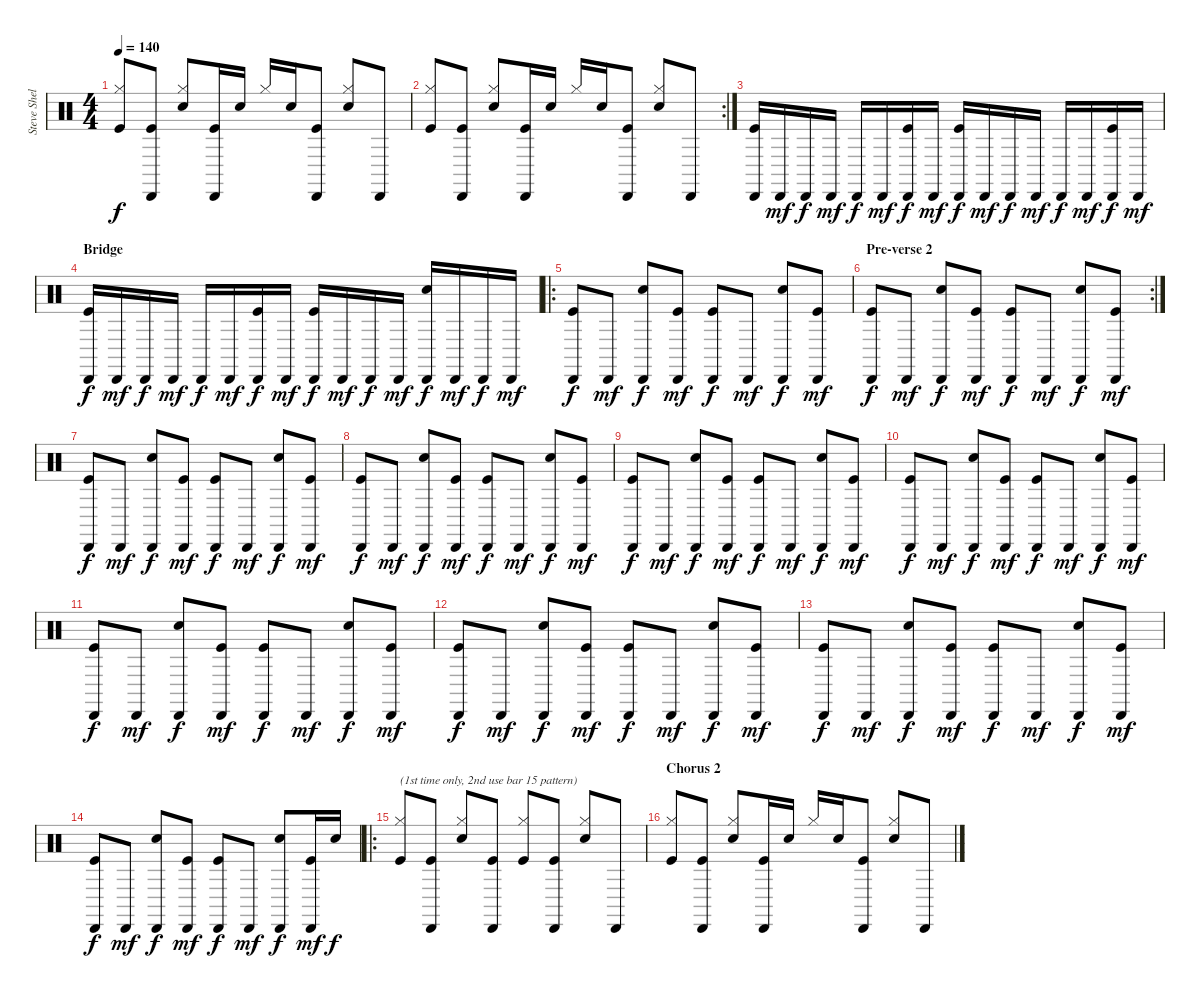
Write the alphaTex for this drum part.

\track ("Steve Shelley" "Steve Shel") {instrument percussion}
\staff {score}
\articulation defaults
\ts (4 4)
\tempo 140
\clef neutral
\ks c
("Hi-Hat (closed)" "Kick (hit)").8{dy f} ("Cabasa (hit)" "Kick (hit)").8 ("Hi-Hat (closed)" "Electric Snare (hit)").8 ("Cabasa (hit)" "Kick (hit)").16 "Electric Snare (hit)".16 "Hi-Hat (closed)".16 "Electric Snare (hit)".16 ("Cabasa (hit)" "Kick (hit)").8 ("Hi-Hat (closed)" "Electric Snare (hit)").8 "Cabasa (hit)".8 |
\rc 2
("Hi-Hat (closed)" "Kick (hit)").8 ("Cabasa (hit)" "Kick (hit)").8 ("Hi-Hat (closed)" "Electric Snare (hit)").8 ("Cabasa (hit)" "Kick (hit)").16 "Electric Snare (hit)".16 "Hi-Hat (closed)".16 "Electric Snare (hit)".16 ("Cabasa (hit)" "Kick (hit)").8 ("Hi-Hat (closed)" "Electric Snare (hit)").8 "Cabasa (hit)".8 |
("Cabasa (hit)" "Kick (hit)").16 "Cabasa (hit)".16{dy mf} "Cabasa (hit)".16{dy f} "Cabasa (hit)".16{dy mf} "Cabasa (hit)".16{dy f} "Cabasa (hit)".16{dy mf} ("Cabasa (hit)" "Kick (hit)").16{dy f} "Cabasa (hit)".16{dy mf} ("Cabasa (hit)" "Kick (hit)").16{dy f} "Cabasa (hit)".16{dy mf} "Cabasa (hit)".16{dy f} "Cabasa (hit)".16{dy mf} "Cabasa (hit)".16{dy f} "Cabasa (hit)".16{dy mf} ("Cabasa (hit)" "Kick (hit)").16{dy f} "Cabasa (hit)".16{dy mf} |
\section ("" "Bridge")
("Cabasa (hit)" "Kick (hit)").16{dy f} "Cabasa (hit)".16{dy mf} "Cabasa (hit)".16{dy f} "Cabasa (hit)".16{dy mf} "Cabasa (hit)".16{dy f} "Cabasa (hit)".16{dy mf} ("Cabasa (hit)" "Kick (hit)").16{dy f} "Cabasa (hit)".16{dy mf} ("Cabasa (hit)" "Kick (hit)").16{dy f} "Cabasa (hit)".16{dy mf} "Cabasa (hit)".16{dy f} "Cabasa (hit)".16{dy mf} ("Cabasa (hit)" "Electric Snare (hit)").16{dy f} "Cabasa (hit)".16{dy mf} "Cabasa (hit)".16{dy f} "Cabasa (hit)".16{dy mf} |
\ro
("Cabasa (hit)" "Kick (hit)").8{dy f} "Cabasa (hit)".8{dy mf} ("Cabasa (hit)" "Electric Snare (hit)").8{dy f} ("Cabasa (hit)" "Kick (hit)").8{dy mf} ("Cabasa (hit)" "Kick (hit)").8{dy f} "Cabasa (hit)".8{dy mf} ("Cabasa (hit)" "Electric Snare (hit)").8{dy f} ("Cabasa (hit)" "Kick (hit)").8{dy mf} |
\rc 2
\section ("" "Pre-verse 2")
("Cabasa (hit)" "Kick (hit)").8{dy f} "Cabasa (hit)".8{dy mf} ("Cabasa (hit)" "Electric Snare (hit)").8{dy f} ("Cabasa (hit)" "Kick (hit)").8{dy mf} ("Cabasa (hit)" "Kick (hit)").8{dy f} "Cabasa (hit)".8{dy mf} ("Cabasa (hit)" "Electric Snare (hit)").8{dy f} ("Cabasa (hit)" "Kick (hit)").8{dy mf} |
("Cabasa (hit)" "Kick (hit)").8{dy f} "Cabasa (hit)".8{dy mf} ("Cabasa (hit)" "Electric Snare (hit)").8{dy f} ("Cabasa (hit)" "Kick (hit)").8{dy mf} ("Cabasa (hit)" "Kick (hit)").8{dy f} "Cabasa (hit)".8{dy mf} ("Cabasa (hit)" "Electric Snare (hit)").8{dy f} ("Cabasa (hit)" "Kick (hit)").8{dy mf} |
("Cabasa (hit)" "Kick (hit)").8{dy f} "Cabasa (hit)".8{dy mf} ("Cabasa (hit)" "Electric Snare (hit)").8{dy f} ("Cabasa (hit)" "Kick (hit)").8{dy mf} ("Cabasa (hit)" "Kick (hit)").8{dy f} "Cabasa (hit)".8{dy mf} ("Cabasa (hit)" "Electric Snare (hit)").8{dy f} ("Cabasa (hit)" "Kick (hit)").8{dy mf} |
("Cabasa (hit)" "Kick (hit)").8{dy f} "Cabasa (hit)".8{dy mf} ("Cabasa (hit)" "Electric Snare (hit)").8{dy f} ("Cabasa (hit)" "Kick (hit)").8{dy mf} ("Cabasa (hit)" "Kick (hit)").8{dy f} "Cabasa (hit)".8{dy mf} ("Cabasa (hit)" "Electric Snare (hit)").8{dy f} ("Cabasa (hit)" "Kick (hit)").8{dy mf} |
("Cabasa (hit)" "Kick (hit)").8{dy f} "Cabasa (hit)".8{dy mf} ("Cabasa (hit)" "Electric Snare (hit)").8{dy f} ("Cabasa (hit)" "Kick (hit)").8{dy mf} ("Cabasa (hit)" "Kick (hit)").8{dy f} "Cabasa (hit)".8{dy mf} ("Cabasa (hit)" "Electric Snare (hit)").8{dy f} ("Cabasa (hit)" "Kick (hit)").8{dy mf} |
("Cabasa (hit)" "Kick (hit)").8{dy f} "Cabasa (hit)".8{dy mf} ("Cabasa (hit)" "Electric Snare (hit)").8{dy f} ("Cabasa (hit)" "Kick (hit)").8{dy mf} ("Cabasa (hit)" "Kick (hit)").8{dy f} "Cabasa (hit)".8{dy mf} ("Cabasa (hit)" "Electric Snare (hit)").8{dy f} ("Cabasa (hit)" "Kick (hit)").8{dy mf} |
("Cabasa (hit)" "Kick (hit)").8{dy f} "Cabasa (hit)".8{dy mf} ("Cabasa (hit)" "Electric Snare (hit)").8{dy f} ("Cabasa (hit)" "Kick (hit)").8{dy mf} ("Cabasa (hit)" "Kick (hit)").8{dy f} "Cabasa (hit)".8{dy mf} ("Cabasa (hit)" "Electric Snare (hit)").8{dy f} ("Cabasa (hit)" "Kick (hit)").8{dy mf} |
("Cabasa (hit)" "Kick (hit)").8{dy f} "Cabasa (hit)".8{dy mf} ("Cabasa (hit)" "Electric Snare (hit)").8{dy f} ("Cabasa (hit)" "Kick (hit)").8{dy mf} ("Cabasa (hit)" "Kick (hit)").8{dy f} "Cabasa (hit)".8{dy mf} ("Cabasa (hit)" "Electric Snare (hit)").8{dy f} ("Cabasa (hit)" "Kick (hit)").8{dy mf} |
("Cabasa (hit)" "Kick (hit)").8{dy f} "Cabasa (hit)".8{dy mf} ("Cabasa (hit)" "Electric Snare (hit)").8{dy f} ("Cabasa (hit)" "Kick (hit)").8{dy mf} ("Cabasa (hit)" "Kick (hit)").8{dy f} "Cabasa (hit)".8{dy mf} ("Cabasa (hit)" "Electric Snare (hit)").8{dy f} ("Cabasa (hit)" "Kick (hit)").16{dy mf} "Electric Snare (hit)".16{dy f} |
\ro
("Hi-Hat (closed)" "Kick (hit)").8{txt "(1st time only, 2nd use bar 15 pattern)"} ("Cabasa (hit)" "Kick (hit)").8 ("Hi-Hat (closed)" "Electric Snare (hit)").8 ("Cabasa (hit)" "Kick (hit)").8 ("Hi-Hat (closed)" "Kick (hit)").8 ("Cabasa (hit)" "Kick (hit)").8 ("Hi-Hat (closed)" "Electric Snare (hit)").8 "Cabasa (hit)".8 |
\section ("" "Chorus 2")
("Hi-Hat (closed)" "Kick (hit)").8 ("Cabasa (hit)" "Kick (hit)").8 ("Hi-Hat (closed)" "Electric Snare (hit)").8 ("Cabasa (hit)" "Kick (hit)").16 "Electric Snare (hit)".16 "Hi-Hat (closed)".16 "Electric Snare (hit)".16 ("Cabasa (hit)" "Kick (hit)").8 ("Hi-Hat (closed)" "Electric Snare (hit)").8 "Cabasa (hit)".8
